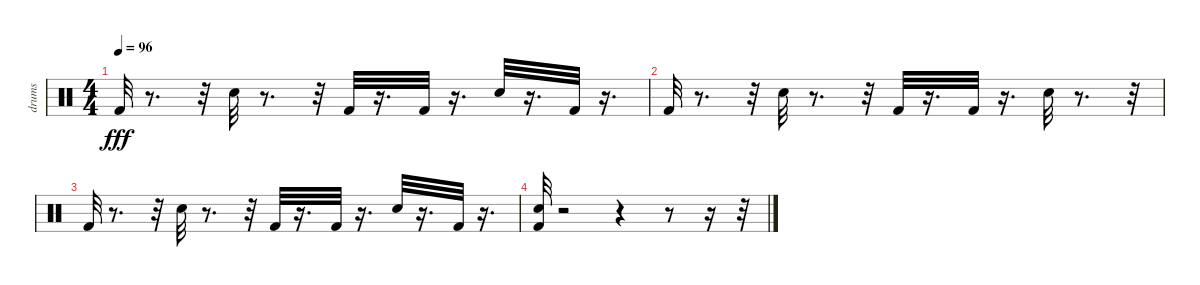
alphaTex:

\track ("drums" "drums") {instrument percussion}
\staff {score}
\articulation defaults
\ts (4 4)
\tempo 96
\clef neutral
\ks c "Kick (hit) 2".32{dy fff}
r.8{d} r.32 "Electric Snare (hit)".32 r.8{d} r.32 "Kick (hit) 2".32 r.16{d} "Kick (hit) 2".32 r.16{d} "Electric Snare (hit)".32 r.16{d} "Kick (hit) 2".32 r.16{d} |
"Kick (hit) 2".32 r.8{d} r.32 "Electric Snare (hit)".32 r.8{d} r.32 "Kick (hit) 2".32 r.16{d} "Kick (hit) 2".32 r.16{d} "Electric Snare (hit)".32 r.8{d} r.32 |
"Kick (hit) 2".32 r.8{d} r.32 "Electric Snare (hit)".32 r.8{d} r.32 "Kick (hit) 2".32 r.16{d} "Kick (hit) 2".32 r.16{d} "Electric Snare (hit)".32 r.16{d} "Kick (hit) 2".32 r.16{d} |
("Kick (hit) 2" "Electric Snare (hit)").32 r.2 r.4 r.8 r.16 r.32
